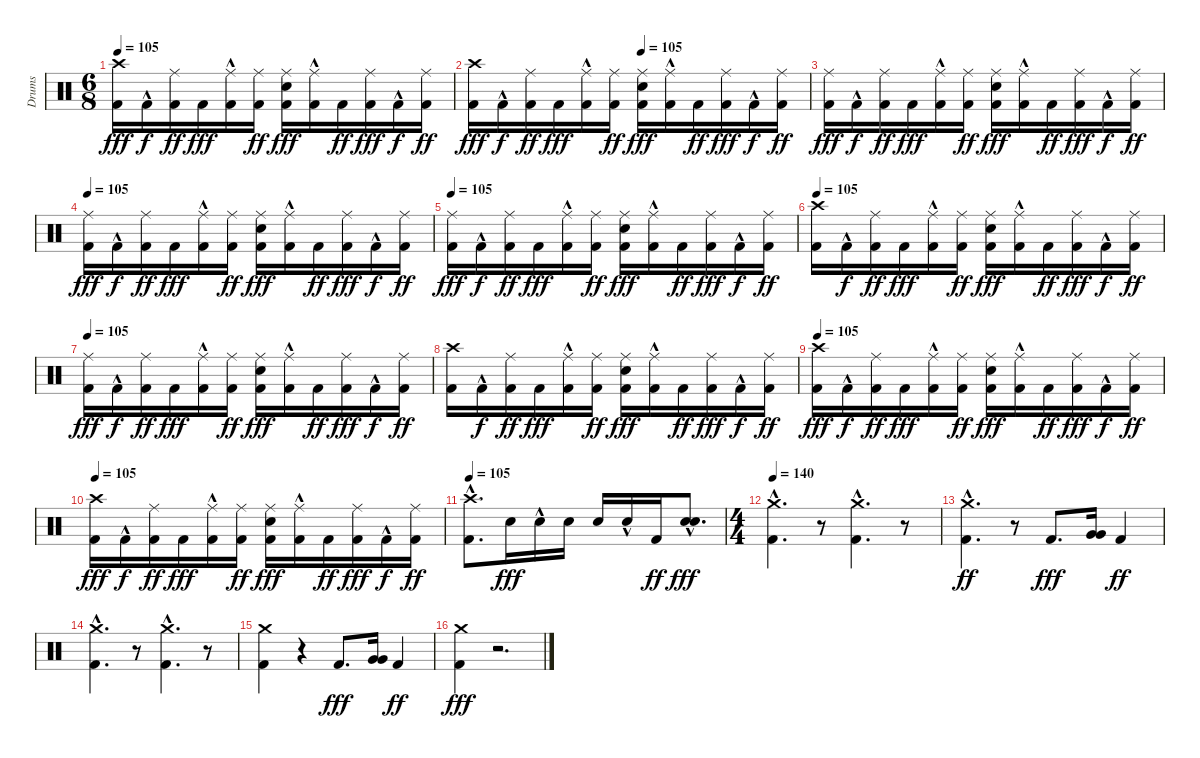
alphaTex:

\track ("Drums" "Drums") {instrument percussion}
\staff {score}
\articulation defaults
\ts (6 8)
\tempo 105
\clef neutral
\ks c
("Kick (hit) 2" "Crash high (hit)").16{dy fff} "Kick (hit) 2"{hac}.16{dy f} ("Ride (middle)" "Kick (hit) 2").16{dy ff} "Kick (hit) 2".16{dy fff} ("Ride (middle)"{hac} "Kick (hit) 2"{hac}).16 ("Ride (middle)" "Kick (hit) 2").16{dy ff} ("Ride (middle)" "Electric Snare (hit)" "Kick (hit) 2").16{dy fff} ("Ride (middle)" "Kick (hit) 2"{hac}).16 "Kick (hit) 2".16{dy ff} ("Ride (middle)" "Kick (hit) 2").16{dy fff} "Kick (hit) 2"{hac}.16{dy f} ("Ride (middle)" "Kick (hit) 2").16{dy ff} |
\tempo (105 0.5)
("Kick (hit) 2" "Crash high (hit)").16{dy fff} "Kick (hit) 2"{hac}.16{dy f} ("Ride (middle)" "Kick (hit) 2").16{dy ff} "Kick (hit) 2".16{dy fff} ("Ride (middle)"{hac} "Kick (hit) 2"{hac}).16 ("Ride (middle)" "Kick (hit) 2").16{dy ff} ("Ride (middle)" "Electric Snare (hit)" "Kick (hit) 2").16{dy fff} ("Ride (middle)" "Kick (hit) 2"{hac}).16 "Kick (hit) 2".16{dy ff} ("Ride (middle)" "Kick (hit) 2").16{dy fff} "Kick (hit) 2"{hac}.16{dy f} ("Ride (middle)" "Kick (hit) 2").16{dy ff} |
("Ride (middle)" "Kick (hit) 2").16{dy fff} "Kick (hit) 2"{hac}.16{dy f} ("Ride (middle)" "Kick (hit) 2").16{dy ff} "Kick (hit) 2".16{dy fff} ("Ride (middle)"{hac} "Kick (hit) 2"{hac}).16 ("Ride (middle)" "Kick (hit) 2").16{dy ff} ("Ride (middle)" "Electric Snare (hit)" "Kick (hit) 2").16{dy fff} ("Ride (middle)" "Kick (hit) 2"{hac}).16 "Kick (hit) 2".16{dy ff} ("Ride (middle)" "Kick (hit) 2").16{dy fff} "Kick (hit) 2"{hac}.16{dy f} ("Ride (middle)" "Kick (hit) 2").16{dy ff} |
\tempo 105
("Ride (middle)" "Kick (hit) 2").16{dy fff} "Kick (hit) 2"{hac}.16{dy f} ("Ride (middle)" "Kick (hit) 2").16{dy ff} "Kick (hit) 2".16{dy fff} ("Ride (middle)"{hac} "Kick (hit) 2"{hac}).16 ("Ride (middle)" "Kick (hit) 2").16{dy ff} ("Ride (middle)" "Electric Snare (hit)" "Kick (hit) 2").16{dy fff} ("Ride (middle)" "Kick (hit) 2"{hac}).16 "Kick (hit) 2".16{dy ff} ("Ride (middle)" "Kick (hit) 2").16{dy fff} "Kick (hit) 2"{hac}.16{dy f} ("Ride (middle)" "Kick (hit) 2").16{dy ff} |
\tempo 105
("Ride (middle)" "Kick (hit) 2").16{dy fff} "Kick (hit) 2"{hac}.16{dy f} ("Ride (middle)" "Kick (hit) 2").16{dy ff} "Kick (hit) 2".16{dy fff} ("Ride (middle)"{hac} "Kick (hit) 2"{hac}).16 ("Ride (middle)" "Kick (hit) 2").16{dy ff} ("Ride (middle)" "Electric Snare (hit)" "Kick (hit) 2").16{dy fff} ("Ride (middle)" "Kick (hit) 2"{hac}).16 "Kick (hit) 2".16{dy ff} ("Ride (middle)" "Kick (hit) 2").16{dy fff} "Kick (hit) 2"{hac}.16{dy f} ("Ride (middle)" "Kick (hit) 2").16{dy ff} |
\tempo 105
("Kick (hit) 2" "Crash high (hit)").16 "Kick (hit) 2"{hac}.16{dy f} ("Ride (middle)" "Kick (hit) 2").16{dy ff} "Kick (hit) 2".16{dy fff} ("Ride (middle)"{hac} "Kick (hit) 2"{hac}).16 ("Ride (middle)" "Kick (hit) 2").16{dy ff} ("Ride (middle)" "Electric Snare (hit)" "Kick (hit) 2").16{dy fff} ("Ride (middle)" "Kick (hit) 2"{hac}).16 "Kick (hit) 2".16{dy ff} ("Ride (middle)" "Kick (hit) 2").16{dy fff} "Kick (hit) 2"{hac}.16{dy f} ("Ride (middle)" "Kick (hit) 2").16{dy ff} |
\tempo 105
("Ride (middle)" "Kick (hit) 2").16{dy fff} "Kick (hit) 2"{hac}.16{dy f} ("Ride (middle)" "Kick (hit) 2").16{dy ff} "Kick (hit) 2".16{dy fff} ("Ride (middle)"{hac} "Kick (hit) 2"{hac}).16 ("Ride (middle)" "Kick (hit) 2").16{dy ff} ("Ride (middle)" "Electric Snare (hit)" "Kick (hit) 2").16{dy fff} ("Ride (middle)" "Kick (hit) 2"{hac}).16 "Kick (hit) 2".16{dy ff} ("Ride (middle)" "Kick (hit) 2").16{dy fff} "Kick (hit) 2"{hac}.16{dy f} ("Ride (middle)" "Kick (hit) 2").16{dy ff} |
("Kick (hit) 2" "Crash high (hit)").16 "Kick (hit) 2"{hac}.16{dy f} ("Ride (middle)" "Kick (hit) 2").16{dy ff} "Kick (hit) 2".16{dy fff} ("Ride (middle)"{hac} "Kick (hit) 2"{hac}).16 ("Ride (middle)" "Kick (hit) 2").16{dy ff} ("Ride (middle)" "Electric Snare (hit)" "Kick (hit) 2").16{dy fff} ("Ride (middle)" "Kick (hit) 2"{hac}).16 "Kick (hit) 2".16{dy ff} ("Ride (middle)" "Kick (hit) 2").16{dy fff} "Kick (hit) 2"{hac}.16{dy f} ("Ride (middle)" "Kick (hit) 2").16{dy ff} |
\tempo 105
("Kick (hit) 2" "Crash high (hit)").16{dy fff} "Kick (hit) 2"{hac}.16{dy f} ("Ride (middle)" "Kick (hit) 2").16{dy ff} "Kick (hit) 2".16{dy fff} ("Ride (middle)"{hac} "Kick (hit) 2"{hac}).16 ("Ride (middle)" "Kick (hit) 2").16{dy ff} ("Ride (middle)" "Electric Snare (hit)" "Kick (hit) 2").16{dy fff} ("Ride (middle)" "Kick (hit) 2"{hac}).16 "Kick (hit) 2".16{dy ff} ("Ride (middle)" "Kick (hit) 2").16{dy fff} "Kick (hit) 2"{hac}.16{dy f} ("Ride (middle)" "Kick (hit) 2").16{dy ff} |
\tempo 105
("Kick (hit) 2" "Crash high (hit)").16{dy fff} "Kick (hit) 2"{hac}.16{dy f} ("Ride (middle)" "Kick (hit) 2").16{dy ff} "Kick (hit) 2".16{dy fff} ("Ride (middle)"{hac} "Kick (hit) 2"{hac}).16 ("Ride (middle)" "Kick (hit) 2").16{dy ff} ("Ride (middle)" "Electric Snare (hit)" "Kick (hit) 2").16{dy fff} ("Ride (middle)" "Kick (hit) 2"{hac}).16 "Kick (hit) 2".16{dy ff} ("Ride (middle)" "Kick (hit) 2").16{dy fff} "Kick (hit) 2"{hac}.16{dy f} ("Ride (middle)" "Kick (hit) 2").16{dy ff} |
\tempo 105
("Kick (hit) 2"{hac} "Crash high (hit)").8{d} "Electric Snare (hit)".16{dy fff} "Electric Snare (hit)"{hac}.16 "Electric Snare (hit)".16 "Electric Snare (hit)".16 "Electric Snare (hit)"{hac}.16 "Kick (hit) 2".16{dy ff} ("Snare (hit) 2"{hac} "Electric Snare (hit)"{hac}).8{d dy fff} |
\ts (4 4)
\tempo 140
("Kick (hit) 2" "Crash medium (hit)"{hac}).4{d} r.8 ("Kick (hit) 2" "Crash medium (hit)"{hac}).4{d} r.8 |
("Kick (hit) 2" "Crash medium (hit)"{hac}).4{d dy ff} r.8 "Kick (hit) 2".8{d dy fff} ("Very Low Tom (hit)" "Very Low Tom (hit)").16 "Kick (hit) 2".4{dy ff} |
("Kick (hit) 2" "Crash medium (hit)"{hac}).4{d} r.8 ("Kick (hit) 2" "Crash medium (hit)"{hac}).4{d} r.8 |
("Kick (hit) 2" "Crash medium (hit)").4 r.4 "Kick (hit) 2".8{d dy fff} ("Very Low Tom (hit)" "Very Low Tom (hit)").16 "Kick (hit) 2".4{dy ff} |
("Kick (hit) 2" "Crash medium (hit)").4{dy fff} r.2{d}
